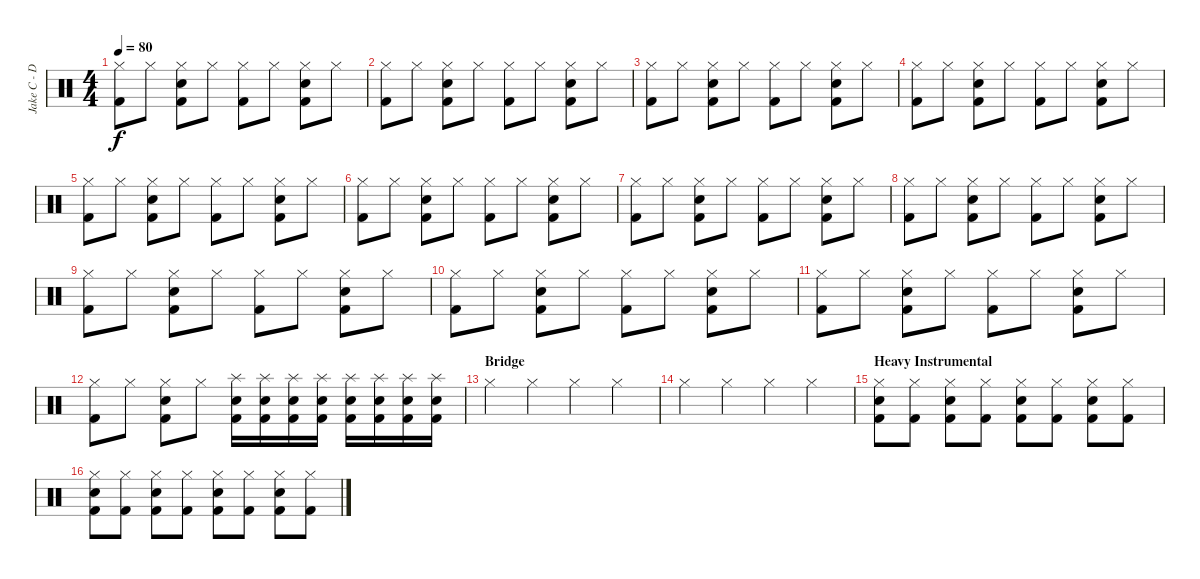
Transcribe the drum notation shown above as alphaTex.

\track ("Jake C - Drums" "Jake C - D") {instrument percussion}
\staff {score}
\articulation defaults
\ts (4 4)
\tempo 80
\clef neutral
\ks c
("Hi-Hat (closed)" "Kick (hit) 2").8{dy f} "Hi-Hat (closed)".8 ("Hi-Hat (closed)" "Electric Snare (hit)" "Kick (hit) 2").8 "Hi-Hat (closed)".8 ("Hi-Hat (closed)" "Kick (hit) 2").8 "Hi-Hat (closed)".8 ("Hi-Hat (closed)" "Electric Snare (hit)" "Kick (hit) 2").8 "Hi-Hat (closed)".8 |
("Hi-Hat (closed)" "Kick (hit) 2").8 "Hi-Hat (closed)".8 ("Hi-Hat (closed)" "Electric Snare (hit)" "Kick (hit) 2").8 "Hi-Hat (closed)".8 ("Hi-Hat (closed)" "Kick (hit) 2").8 "Hi-Hat (closed)".8 ("Hi-Hat (closed)" "Electric Snare (hit)" "Kick (hit) 2").8 "Hi-Hat (closed)".8 |
("Hi-Hat (closed)" "Kick (hit) 2").8 "Hi-Hat (closed)".8 ("Hi-Hat (closed)" "Electric Snare (hit)" "Kick (hit) 2").8 "Hi-Hat (closed)".8 ("Hi-Hat (closed)" "Kick (hit) 2").8 "Hi-Hat (closed)".8 ("Hi-Hat (closed)" "Electric Snare (hit)" "Kick (hit) 2").8 "Hi-Hat (closed)".8 |
("Hi-Hat (closed)" "Kick (hit) 2").8 "Hi-Hat (closed)".8 ("Hi-Hat (closed)" "Electric Snare (hit)" "Kick (hit) 2").8 "Hi-Hat (closed)".8 ("Hi-Hat (closed)" "Kick (hit) 2").8 "Hi-Hat (closed)".8 ("Hi-Hat (closed)" "Electric Snare (hit)" "Kick (hit) 2").8 "Hi-Hat (closed)".8 |
("Hi-Hat (closed)" "Kick (hit) 2").8 "Hi-Hat (closed)".8 ("Hi-Hat (closed)" "Electric Snare (hit)" "Kick (hit) 2").8 "Hi-Hat (closed)".8 ("Hi-Hat (closed)" "Kick (hit) 2").8 "Hi-Hat (closed)".8 ("Hi-Hat (closed)" "Electric Snare (hit)" "Kick (hit) 2").8 "Hi-Hat (closed)".8 |
("Hi-Hat (closed)" "Kick (hit) 2").8 "Hi-Hat (closed)".8 ("Hi-Hat (closed)" "Electric Snare (hit)" "Kick (hit) 2").8 "Hi-Hat (closed)".8 ("Hi-Hat (closed)" "Kick (hit) 2").8 "Hi-Hat (closed)".8 ("Hi-Hat (closed)" "Electric Snare (hit)" "Kick (hit) 2").8 "Hi-Hat (closed)".8 |
("Hi-Hat (closed)" "Kick (hit) 2").8 "Hi-Hat (closed)".8 ("Hi-Hat (closed)" "Electric Snare (hit)" "Kick (hit) 2").8 "Hi-Hat (closed)".8 ("Hi-Hat (closed)" "Kick (hit) 2").8 "Hi-Hat (closed)".8 ("Hi-Hat (closed)" "Electric Snare (hit)" "Kick (hit) 2").8 "Hi-Hat (closed)".8 |
("Hi-Hat (closed)" "Kick (hit) 2").8 "Hi-Hat (closed)".8 ("Hi-Hat (closed)" "Electric Snare (hit)" "Kick (hit) 2").8 "Hi-Hat (closed)".8 ("Hi-Hat (closed)" "Kick (hit) 2").8 "Hi-Hat (closed)".8 ("Hi-Hat (closed)" "Electric Snare (hit)" "Kick (hit) 2").8 "Hi-Hat (closed)".8 |
("Hi-Hat (closed)" "Kick (hit) 2").8 "Hi-Hat (closed)".8 ("Hi-Hat (closed)" "Electric Snare (hit)" "Kick (hit) 2").8 "Hi-Hat (closed)".8 ("Hi-Hat (closed)" "Kick (hit) 2").8 "Hi-Hat (closed)".8 ("Hi-Hat (closed)" "Electric Snare (hit)" "Kick (hit) 2").8 "Hi-Hat (closed)".8 |
("Hi-Hat (closed)" "Kick (hit) 2").8 "Hi-Hat (closed)".8 ("Hi-Hat (closed)" "Electric Snare (hit)" "Kick (hit) 2").8 "Hi-Hat (closed)".8 ("Hi-Hat (closed)" "Kick (hit) 2").8 "Hi-Hat (closed)".8 ("Hi-Hat (closed)" "Electric Snare (hit)" "Kick (hit) 2").8 "Hi-Hat (closed)".8 |
("Hi-Hat (closed)" "Kick (hit) 2").8 "Hi-Hat (closed)".8 ("Hi-Hat (closed)" "Electric Snare (hit)" "Kick (hit) 2").8 "Hi-Hat (closed)".8 ("Hi-Hat (closed)" "Kick (hit) 2").8 "Hi-Hat (closed)".8 ("Hi-Hat (closed)" "Electric Snare (hit)" "Kick (hit) 2").8 "Hi-Hat (closed)".8 |
("Hi-Hat (closed)" "Kick (hit) 2").8 "Hi-Hat (closed)".8 ("Hi-Hat (closed)" "Electric Snare (hit)" "Kick (hit) 2").8 "Hi-Hat (closed)".8 ("Splash (hit)" "Electric Snare (hit)" "Kick (hit) 2").16 ("Splash (hit)" "Electric Snare (hit)" "Kick (hit) 2").16 ("Splash (hit)" "Electric Snare (hit)" "Kick (hit) 2").16 ("Splash (hit)" "Electric Snare (hit)" "Kick (hit) 2").16 ("Splash (hit)" "Electric Snare (hit)" "Kick (hit) 2").16 ("Splash (hit)" "Electric Snare (hit)" "Kick (hit) 2").16 ("Splash (hit)" "Electric Snare (hit)" "Kick (hit) 2").16 ("Splash (hit)" "Electric Snare (hit)" "Kick (hit) 2").16 |
\section ("" "Bridge")
"Hi-Hat (closed)".4 "Hi-Hat (closed)".4 "Hi-Hat (closed)".4 "Hi-Hat (closed)".4 |
"Hi-Hat (closed)".4 "Hi-Hat (closed)".4 "Hi-Hat (closed)".4 "Hi-Hat (closed)".4 |
\section ("" "Heavy Instrumental")
("Hi-Hat (closed)" "Electric Snare (hit)" "Kick (hit) 2").8 ("Hi-Hat (closed)" "Kick (hit) 2").8 ("Hi-Hat (closed)" "Electric Snare (hit)" "Kick (hit) 2").8 ("Hi-Hat (closed)" "Kick (hit) 2").8 ("Hi-Hat (closed)" "Electric Snare (hit)" "Kick (hit) 2").8 ("Hi-Hat (closed)" "Kick (hit) 2").8 ("Hi-Hat (closed)" "Electric Snare (hit)" "Kick (hit) 2").8 ("Hi-Hat (closed)" "Kick (hit) 2").8 |
("Hi-Hat (closed)" "Electric Snare (hit)" "Kick (hit) 2").8 ("Hi-Hat (closed)" "Kick (hit) 2").8 ("Hi-Hat (closed)" "Electric Snare (hit)" "Kick (hit) 2").8 ("Hi-Hat (closed)" "Kick (hit) 2").8 ("Hi-Hat (closed)" "Electric Snare (hit)" "Kick (hit) 2").8 ("Hi-Hat (closed)" "Kick (hit) 2").8 ("Hi-Hat (closed)" "Electric Snare (hit)" "Kick (hit) 2").8 ("Hi-Hat (closed)" "Kick (hit) 2").8
